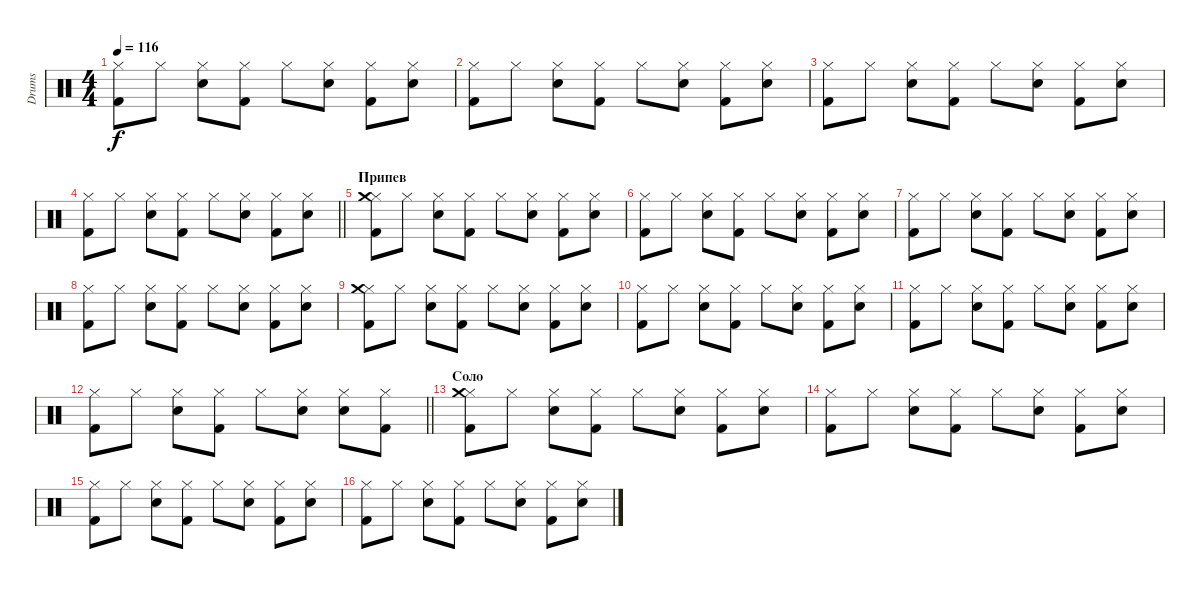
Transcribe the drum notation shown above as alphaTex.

\track ("Drums" "Drums") {instrument percussion}
\staff {score}
\articulation defaults
\ts (4 4)
\tempo 116
\clef neutral
\ks c
("Hi-Hat (closed)" "Kick (hit) 2").8{dy f} "Hi-Hat (closed)".8 ("Hi-Hat (closed)" "Electric Snare (hit)").8 ("Hi-Hat (closed)" "Kick (hit) 2").8 "Hi-Hat (closed)".8 ("Hi-Hat (closed)" "Electric Snare (hit)").8 ("Hi-Hat (closed)" "Kick (hit) 2").8 ("Hi-Hat (closed)" "Electric Snare (hit)").8 |
("Hi-Hat (closed)" "Kick (hit) 2").8 "Hi-Hat (closed)".8 ("Hi-Hat (closed)" "Electric Snare (hit)").8 ("Hi-Hat (closed)" "Kick (hit) 2").8 "Hi-Hat (closed)".8 ("Hi-Hat (closed)" "Electric Snare (hit)").8 ("Hi-Hat (closed)" "Kick (hit) 2").8 ("Hi-Hat (closed)" "Electric Snare (hit)").8 |
("Hi-Hat (closed)" "Kick (hit) 2").8 "Hi-Hat (closed)".8 ("Hi-Hat (closed)" "Electric Snare (hit)").8 ("Hi-Hat (closed)" "Kick (hit) 2").8 "Hi-Hat (closed)".8 ("Hi-Hat (closed)" "Electric Snare (hit)").8 ("Hi-Hat (closed)" "Kick (hit) 2").8 ("Hi-Hat (closed)" "Electric Snare (hit)").8 |
\barLineRight lightlight
("Hi-Hat (closed)" "Kick (hit) 2").8 "Hi-Hat (closed)".8 ("Hi-Hat (closed)" "Electric Snare (hit)").8 ("Hi-Hat (closed)" "Kick (hit) 2").8 "Hi-Hat (closed)".8 ("Hi-Hat (closed)" "Electric Snare (hit)").8 ("Hi-Hat (closed)" "Kick (hit) 2").8 ("Hi-Hat (closed)" "Electric Snare (hit)").8 |
\section ("" "Припев")
("Hi-Hat (closed)" "Kick (hit) 2" "Crash medium (hit)").8 "Hi-Hat (closed)".8 ("Hi-Hat (closed)" "Electric Snare (hit)").8 ("Hi-Hat (closed)" "Kick (hit) 2").8 "Hi-Hat (closed)".8 ("Hi-Hat (closed)" "Electric Snare (hit)").8 ("Hi-Hat (closed)" "Kick (hit) 2").8 ("Hi-Hat (closed)" "Electric Snare (hit)").8 |
("Hi-Hat (closed)" "Kick (hit) 2").8 "Hi-Hat (closed)".8 ("Hi-Hat (closed)" "Electric Snare (hit)").8 ("Hi-Hat (closed)" "Kick (hit) 2").8 "Hi-Hat (closed)".8 ("Hi-Hat (closed)" "Electric Snare (hit)").8 ("Hi-Hat (closed)" "Kick (hit) 2").8 ("Hi-Hat (closed)" "Electric Snare (hit)").8 |
("Hi-Hat (closed)" "Kick (hit) 2").8 "Hi-Hat (closed)".8 ("Hi-Hat (closed)" "Electric Snare (hit)").8 ("Hi-Hat (closed)" "Kick (hit) 2").8 "Hi-Hat (closed)".8 ("Hi-Hat (closed)" "Electric Snare (hit)").8 ("Hi-Hat (closed)" "Kick (hit) 2").8 ("Hi-Hat (closed)" "Electric Snare (hit)").8 |
("Hi-Hat (closed)" "Kick (hit) 2").8 "Hi-Hat (closed)".8 ("Hi-Hat (closed)" "Electric Snare (hit)").8 ("Hi-Hat (closed)" "Kick (hit) 2").8 "Hi-Hat (closed)".8 ("Hi-Hat (closed)" "Electric Snare (hit)").8 ("Hi-Hat (closed)" "Kick (hit) 2").8 ("Hi-Hat (closed)" "Electric Snare (hit)").8 |
("Hi-Hat (closed)" "Kick (hit) 2" "Crash medium (hit)").8 "Hi-Hat (closed)".8 ("Hi-Hat (closed)" "Electric Snare (hit)").8 ("Hi-Hat (closed)" "Kick (hit) 2").8 "Hi-Hat (closed)".8 ("Hi-Hat (closed)" "Electric Snare (hit)").8 ("Hi-Hat (closed)" "Kick (hit) 2").8 ("Hi-Hat (closed)" "Electric Snare (hit)").8 |
("Hi-Hat (closed)" "Kick (hit) 2").8 "Hi-Hat (closed)".8 ("Hi-Hat (closed)" "Electric Snare (hit)").8 ("Hi-Hat (closed)" "Kick (hit) 2").8 "Hi-Hat (closed)".8 ("Hi-Hat (closed)" "Electric Snare (hit)").8 ("Hi-Hat (closed)" "Kick (hit) 2").8 ("Hi-Hat (closed)" "Electric Snare (hit)").8 |
("Hi-Hat (closed)" "Kick (hit) 2").8 "Hi-Hat (closed)".8 ("Hi-Hat (closed)" "Electric Snare (hit)").8 ("Hi-Hat (closed)" "Kick (hit) 2").8 "Hi-Hat (closed)".8 ("Hi-Hat (closed)" "Electric Snare (hit)").8 ("Hi-Hat (closed)" "Kick (hit) 2").8 ("Hi-Hat (closed)" "Electric Snare (hit)").8 |
\barLineRight lightlight
("Hi-Hat (closed)" "Kick (hit) 2").8 "Hi-Hat (closed)".8 ("Hi-Hat (closed)" "Electric Snare (hit)").8 ("Hi-Hat (closed)" "Kick (hit) 2").8 "Hi-Hat (closed)".8 ("Hi-Hat (closed)" "Electric Snare (hit)").8 ("Hi-Hat (closed)" "Electric Snare (hit)").8 ("Hi-Hat (closed)" "Kick (hit) 2").8 |
\section ("" "Соло")
("Hi-Hat (closed)" "Kick (hit) 2" "Crash medium (hit)").8 "Hi-Hat (closed)".8 ("Hi-Hat (closed)" "Electric Snare (hit)").8 ("Hi-Hat (closed)" "Kick (hit) 2").8 "Hi-Hat (closed)".8 ("Hi-Hat (closed)" "Electric Snare (hit)").8 ("Hi-Hat (closed)" "Kick (hit) 2").8 ("Hi-Hat (closed)" "Electric Snare (hit)").8 |
("Hi-Hat (closed)" "Kick (hit) 2").8 "Hi-Hat (closed)".8 ("Hi-Hat (closed)" "Electric Snare (hit)").8 ("Hi-Hat (closed)" "Kick (hit) 2").8 "Hi-Hat (closed)".8 ("Hi-Hat (closed)" "Electric Snare (hit)").8 ("Hi-Hat (closed)" "Kick (hit) 2").8 ("Hi-Hat (closed)" "Electric Snare (hit)").8 |
("Hi-Hat (closed)" "Kick (hit) 2").8 "Hi-Hat (closed)".8 ("Hi-Hat (closed)" "Electric Snare (hit)").8 ("Hi-Hat (closed)" "Kick (hit) 2").8 "Hi-Hat (closed)".8 ("Hi-Hat (closed)" "Electric Snare (hit)").8 ("Hi-Hat (closed)" "Kick (hit) 2").8 ("Hi-Hat (closed)" "Electric Snare (hit)").8 |
("Hi-Hat (closed)" "Kick (hit) 2").8 "Hi-Hat (closed)".8 ("Hi-Hat (closed)" "Electric Snare (hit)").8 ("Hi-Hat (closed)" "Kick (hit) 2").8 "Hi-Hat (closed)".8 ("Hi-Hat (closed)" "Electric Snare (hit)").8 ("Hi-Hat (closed)" "Kick (hit) 2").8 ("Hi-Hat (closed)" "Electric Snare (hit)").8
